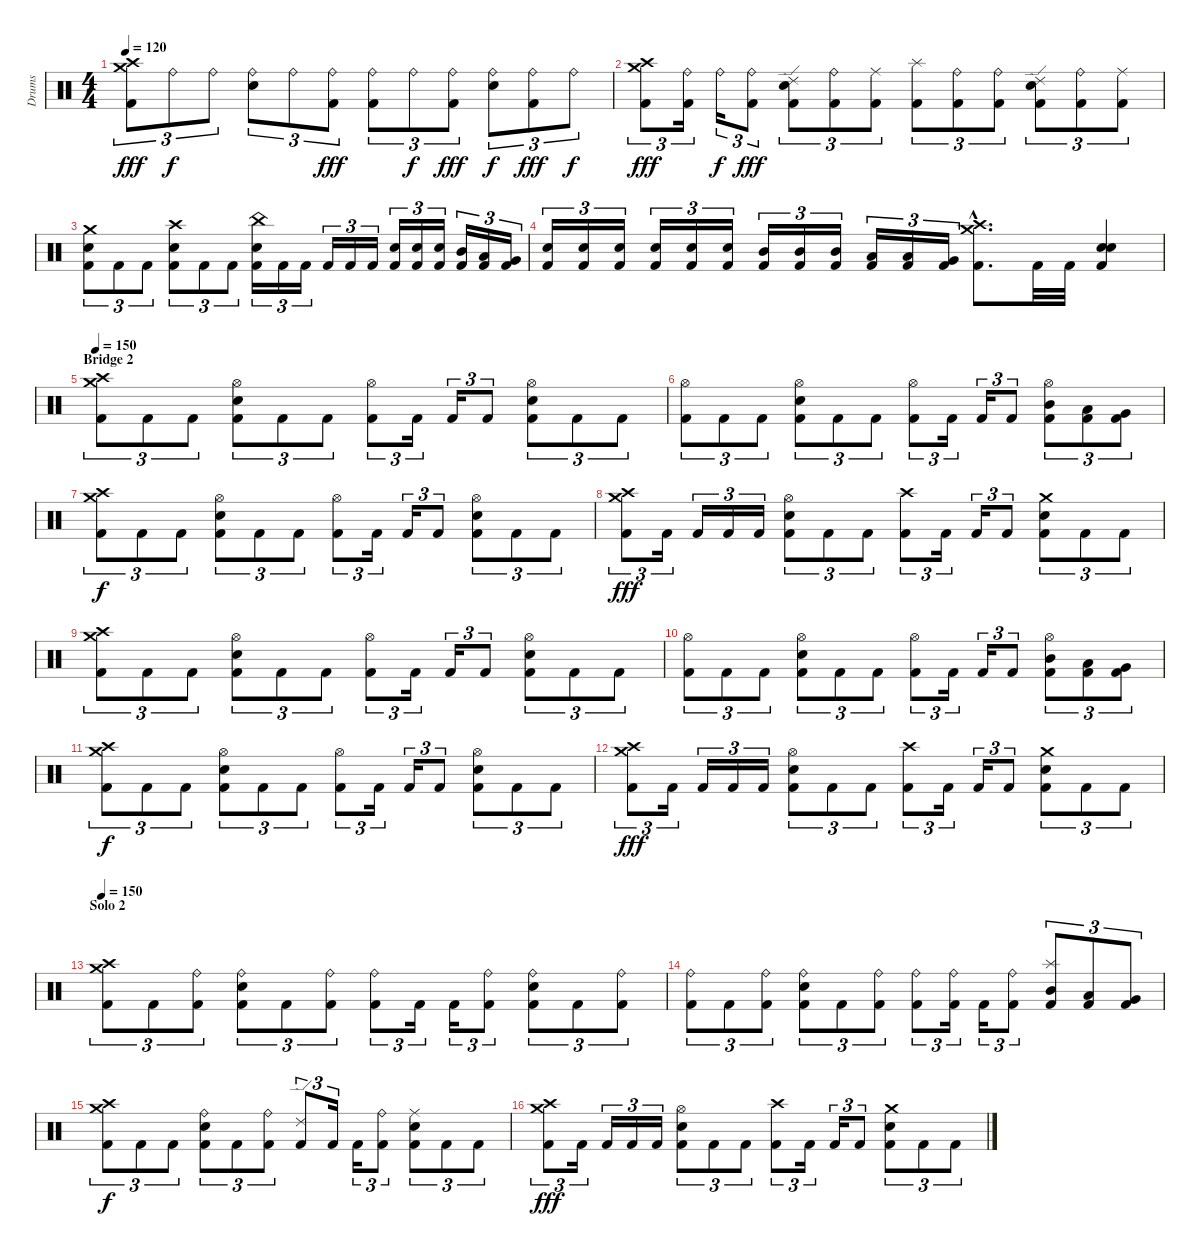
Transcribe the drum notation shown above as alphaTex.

\track ("Drums" "Drums") {instrument percussion}
\staff {score}
\articulation defaults
\ts (4 4)
\tempo 120
\clef neutral
\ks c
("Crash medium (hit)" "Crash high (hit)" "Kick (hit) 2").8{tu (3 2) dy fff} "Ride (bell)".8{tu (3 2) dy f} "Ride (bell)".8{tu (3 2)} ("Ride (bell)" "Snare (hit) 2").8{tu (3 2)} "Ride (bell)".8{tu (3 2)} ("Ride (bell)" "Kick (hit) 2").8{tu (3 2) dy fff} ("Ride (bell)" "Kick (hit) 2").8{tu (3 2)} "Ride (bell)".8{tu (3 2) dy f} ("Ride (bell)" "Kick (hit) 2").8{tu (3 2) dy fff} ("Ride (bell)" "Snare (hit) 2").8{tu (3 2) dy f} ("Ride (bell)" "Kick (hit) 2").8{tu (3 2) dy fff} "Ride (bell)".8{tu (3 2) dy f} |
("Crash medium (hit)" "Crash high (hit)" "Kick (hit) 2").8{tu (3 2) dy fff} ("Ride (bell)" "Kick (hit) 2").16{tu (3 2)} "Ride (bell)".16{tu (3 2) dy f} ("Ride (bell)" "Kick (hit) 2").8{tu (3 2) dy fff} ("Ride (edge) 2" "Snare (hit) 2" "Kick (hit) 2").8{tu (3 2)} ("Ride (bell)" "Kick (hit) 2").8{tu (3 2)} ("Ride (middle)" "Kick (hit) 2").8{tu (3 2)} ("Splash (hit)" "Kick (hit) 2").8{tu (3 2)} ("Ride (bell)" "Kick (hit) 2").8{tu (3 2)} ("Ride (bell)" "Kick (hit) 2").8{tu (3 2)} ("Ride (edge) 2" "Snare (hit) 2" "Kick (hit) 2").8{tu (3 2)} ("Ride (bell)" "Kick (hit) 2").8{tu (3 2)} ("Ride (middle)" "Kick (hit) 2").8{tu (3 2)} |
("Crash medium (hit)" "Snare (hit) 2" "Kick (hit) 2").8{tu (3 2)} "Kick (hit) 2".8{tu (3 2)} "Kick (hit) 2".8{tu (3 2)} ("Crash high (hit)" "Snare (hit) 2" "Kick (hit) 2").8{tu (3 2)} "Kick (hit) 2".8{tu (3 2)} "Kick (hit) 2".8{tu (3 2)} ("China (hit)" "Snare (hit) 2" "Kick (hit) 2").16{tu (3 2)} "Kick (hit) 2".16{tu (3 2)} "Kick (hit) 2".16{tu (3 2)} "Kick (hit) 2".16{tu (3 2)} "Kick (hit) 2".16{tu (3 2)} "Kick (hit) 2".16{tu (3 2)} ("Snare (hit) 2" "Kick (hit) 2").16{tu (3 2)} ("Snare (hit) 2" "Kick (hit) 2").16{tu (3 2)} ("Snare (hit) 2" "Kick (hit) 2").16{tu (3 2)} ("Mid Tom (hit)" "Kick (hit) 2").16{tu (3 2)} ("Low Tom (hit)" "Kick (hit) 2").16{tu (3 2)} ("Very Low Tom (hit)" "Kick (hit) 2").16{tu (3 2)} |
("Snare (hit) 2" "Kick (hit) 2").16{tu (3 2)} ("Snare (hit) 2" "Kick (hit) 2").16{tu (3 2)} ("Snare (hit) 2" "Kick (hit) 2").16{tu (3 2)} ("Snare (hit) 2" "Kick (hit) 2").16{tu (3 2)} ("Snare (hit) 2" "Kick (hit) 2").16{tu (3 2)} ("Snare (hit) 2" "Kick (hit) 2").16{tu (3 2)} ("Mid Tom (hit)" "Kick (hit) 2").16{tu (3 2)} ("Mid Tom (hit)" "Kick (hit) 2").16{tu (3 2)} ("Mid Tom (hit)" "Kick (hit) 2").16{tu (3 2)} ("Low Tom (hit)" "Kick (hit) 2").16{tu (3 2)} ("Low Tom (hit)" "Kick (hit) 2").16{tu (3 2)} ("Very Low Tom (hit)" "Kick (hit) 2").16{tu (3 2)} ("Crash high (hit)"{hac} "Crash medium (hit)"{hac} "Kick (hit) 2"{hac}).8{d} "Kick (hit) 2".32 "Kick (hit) 2".32 ("Snare (hit) 2" "Snare (hit) 2" "Kick (hit) 2").4 |
\section ("" "Bridge 2")
\tempo 150
("Crash medium (hit)" "Crash high (hit)" "Kick (hit) 2").8{tu (3 2)} "Kick (hit) 2".8{tu (3 2)} "Kick (hit) 2".8{tu (3 2)} ("Hi-Hat (open)" "Snare (hit) 2" "Kick (hit) 2").8{tu (3 2)} "Kick (hit) 2".8{tu (3 2)} "Kick (hit) 2".8{tu (3 2)} ("Hi-Hat (open)" "Kick (hit) 2").8{tu (3 2)} "Kick (hit) 2".16{tu (3 2)} "Kick (hit) 2".16{tu (3 2)} "Kick (hit) 2".8{tu (3 2)} ("Hi-Hat (open)" "Snare (hit) 2" "Kick (hit) 2").8{tu (3 2)} "Kick (hit) 2".8{tu (3 2)} "Kick (hit) 2".8{tu (3 2)} |
("Hi-Hat (open)" "Kick (hit) 2").8{tu (3 2)} "Kick (hit) 2".8{tu (3 2)} "Kick (hit) 2".8{tu (3 2)} ("Hi-Hat (open)" "Snare (hit) 2" "Kick (hit) 2").8{tu (3 2)} "Kick (hit) 2".8{tu (3 2)} "Kick (hit) 2".8{tu (3 2)} ("Hi-Hat (open)" "Kick (hit) 2").8{tu (3 2)} "Kick (hit) 2".16{tu (3 2)} "Kick (hit) 2".16{tu (3 2)} "Kick (hit) 2".8{tu (3 2)} ("Hi-Hat (open)" "Mid Tom (hit)" "Kick (hit) 2").8{tu (3 2)} ("Low Tom (hit)" "Kick (hit) 2").8{tu (3 2)} ("Very Low Tom (hit)" "Kick (hit) 2").8{tu (3 2)} |
("Crash medium (hit)" "Crash high (hit)" "Kick (hit) 2").8{tu (3 2) dy f} "Kick (hit) 2".8{tu (3 2)} "Kick (hit) 2".8{tu (3 2)} ("Hi-Hat (open)" "Snare (hit) 2" "Kick (hit) 2").8{tu (3 2)} "Kick (hit) 2".8{tu (3 2)} "Kick (hit) 2".8{tu (3 2)} ("Hi-Hat (open)" "Kick (hit) 2").8{tu (3 2)} "Kick (hit) 2".16{tu (3 2)} "Kick (hit) 2".16{tu (3 2)} "Kick (hit) 2".8{tu (3 2)} ("Hi-Hat (open)" "Snare (hit) 2" "Kick (hit) 2").8{tu (3 2)} "Kick (hit) 2".8{tu (3 2)} "Kick (hit) 2".8{tu (3 2)} |
("Crash medium (hit)" "Crash high (hit)" "Kick (hit) 2").8{tu (3 2) dy fff} "Kick (hit) 2".16{tu (3 2)} "Kick (hit) 2".16{tu (3 2)} "Kick (hit) 2".16{tu (3 2)} "Kick (hit) 2".16{tu (3 2)} ("Hi-Hat (open)" "Snare (hit) 2" "Kick (hit) 2").8{tu (3 2)} "Kick (hit) 2".8{tu (3 2)} "Kick (hit) 2".8{tu (3 2)} ("Crash high (hit)" "Kick (hit) 2").8{tu (3 2)} "Kick (hit) 2".16{tu (3 2)} "Kick (hit) 2".16{tu (3 2)} "Kick (hit) 2".8{tu (3 2)} ("Crash medium (hit)" "Snare (hit) 2" "Kick (hit) 2").8{tu (3 2)} "Kick (hit) 2".8{tu (3 2)} "Kick (hit) 2".8{tu (3 2)} |
("Crash medium (hit)" "Crash high (hit)" "Kick (hit) 2").8{tu (3 2)} "Kick (hit) 2".8{tu (3 2)} "Kick (hit) 2".8{tu (3 2)} ("Hi-Hat (open)" "Snare (hit) 2" "Kick (hit) 2").8{tu (3 2)} "Kick (hit) 2".8{tu (3 2)} "Kick (hit) 2".8{tu (3 2)} ("Hi-Hat (open)" "Kick (hit) 2").8{tu (3 2)} "Kick (hit) 2".16{tu (3 2)} "Kick (hit) 2".16{tu (3 2)} "Kick (hit) 2".8{tu (3 2)} ("Hi-Hat (open)" "Snare (hit) 2" "Kick (hit) 2").8{tu (3 2)} "Kick (hit) 2".8{tu (3 2)} "Kick (hit) 2".8{tu (3 2)} |
("Hi-Hat (open)" "Kick (hit) 2").8{tu (3 2)} "Kick (hit) 2".8{tu (3 2)} "Kick (hit) 2".8{tu (3 2)} ("Hi-Hat (open)" "Snare (hit) 2" "Kick (hit) 2").8{tu (3 2)} "Kick (hit) 2".8{tu (3 2)} "Kick (hit) 2".8{tu (3 2)} ("Hi-Hat (open)" "Kick (hit) 2").8{tu (3 2)} "Kick (hit) 2".16{tu (3 2)} "Kick (hit) 2".16{tu (3 2)} "Kick (hit) 2".8{tu (3 2)} ("Hi-Hat (open)" "Mid Tom (hit)" "Kick (hit) 2").8{tu (3 2)} ("Low Tom (hit)" "Kick (hit) 2").8{tu (3 2)} ("Very Low Tom (hit)" "Kick (hit) 2").8{tu (3 2)} |
("Crash medium (hit)" "Crash high (hit)" "Kick (hit) 2").8{tu (3 2) dy f} "Kick (hit) 2".8{tu (3 2)} "Kick (hit) 2".8{tu (3 2)} ("Hi-Hat (open)" "Snare (hit) 2" "Kick (hit) 2").8{tu (3 2)} "Kick (hit) 2".8{tu (3 2)} "Kick (hit) 2".8{tu (3 2)} ("Hi-Hat (open)" "Kick (hit) 2").8{tu (3 2)} "Kick (hit) 2".16{tu (3 2)} "Kick (hit) 2".16{tu (3 2)} "Kick (hit) 2".8{tu (3 2)} ("Hi-Hat (open)" "Snare (hit) 2" "Kick (hit) 2").8{tu (3 2)} "Kick (hit) 2".8{tu (3 2)} "Kick (hit) 2".8{tu (3 2)} |
("Crash medium (hit)" "Crash high (hit)" "Kick (hit) 2").8{tu (3 2) dy fff} "Kick (hit) 2".16{tu (3 2)} "Kick (hit) 2".16{tu (3 2)} "Kick (hit) 2".16{tu (3 2)} "Kick (hit) 2".16{tu (3 2)} ("Hi-Hat (open)" "Snare (hit) 2" "Kick (hit) 2").8{tu (3 2)} "Kick (hit) 2".8{tu (3 2)} "Kick (hit) 2".8{tu (3 2)} ("Crash high (hit)" "Kick (hit) 2").8{tu (3 2)} "Kick (hit) 2".16{tu (3 2)} "Kick (hit) 2".16{tu (3 2)} "Kick (hit) 2".8{tu (3 2)} ("Crash medium (hit)" "Snare (hit) 2" "Kick (hit) 2").8{tu (3 2)} "Kick (hit) 2".8{tu (3 2)} "Kick (hit) 2".8{tu (3 2)} |
\section ("" "Solo 2")
\tempo 150
("Crash medium (hit)" "Crash high (hit)" "Kick (hit) 2").8{tu (3 2)} "Kick (hit) 2".8{tu (3 2)} ("Ride (bell)" "Kick (hit) 2").8{tu (3 2)} ("Ride (bell)" "Snare (hit) 2" "Kick (hit) 2").8{tu (3 2)} "Kick (hit) 2".8{tu (3 2)} ("Ride (bell)" "Kick (hit) 2").8{tu (3 2)} ("Ride (bell)" "Kick (hit) 2").8{tu (3 2)} "Kick (hit) 2".16{tu (3 2)} "Kick (hit) 2".16{tu (3 2)} ("Ride (bell)" "Kick (hit) 2").8{tu (3 2)} ("Ride (bell)" "Snare (hit) 2" "Kick (hit) 2").8{tu (3 2)} "Kick (hit) 2".8{tu (3 2)} ("Ride (bell)" "Kick (hit) 2").8{tu (3 2)} |
("Ride (bell)" "Kick (hit) 2").8{tu (3 2)} "Kick (hit) 2".8{tu (3 2)} ("Ride (bell)" "Kick (hit) 2").8{tu (3 2)} ("Ride (bell)" "Snare (hit) 2" "Kick (hit) 2").8{tu (3 2)} "Kick (hit) 2".8{tu (3 2)} ("Ride (bell)" "Kick (hit) 2").8{tu (3 2)} ("Ride (bell)" "Kick (hit) 2").8{tu (3 2)} ("Ride (bell)" "Kick (hit) 2").16{tu (3 2)} "Kick (hit) 2".16{tu (3 2)} ("Ride (bell)" "Kick (hit) 2").8{tu (3 2)} ("Splash (hit)" "Mid Tom (hit)" "Kick (hit) 2").8{tu (3 2)} ("Low Tom (hit)" "Kick (hit) 2").8{tu (3 2)} ("Very Low Tom (hit)" "Kick (hit) 2").8{tu (3 2)} |
("Crash medium (hit)" "Crash high (hit)" "Kick (hit) 2").8{tu (3 2) dy f} "Kick (hit) 2".8{tu (3 2)} "Kick (hit) 2".8{tu (3 2)} ("Ride (bell)" "Snare (hit) 2" "Kick (hit) 2").8{tu (3 2)} "Kick (hit) 2".8{tu (3 2)} ("Ride (bell)" "Kick (hit) 2").8{tu (3 2)} ("Ride (edge) 2" "Kick (hit) 2").8{tu (3 2)} "Kick (hit) 2".16{tu (3 2)} "Kick (hit) 2".16{tu (3 2)} ("Ride (bell)" "Kick (hit) 2").8{tu (3 2)} ("Ride (middle)" "Snare (hit) 2" "Kick (hit) 2").8{tu (3 2)} "Kick (hit) 2".8{tu (3 2)} "Kick (hit) 2".8{tu (3 2)} |
("Crash medium (hit)" "Crash high (hit)" "Kick (hit) 2").8{tu (3 2) dy fff} "Kick (hit) 2".16{tu (3 2)} "Kick (hit) 2".16{tu (3 2)} "Kick (hit) 2".16{tu (3 2)} "Kick (hit) 2".16{tu (3 2)} ("Hi-Hat (open)" "Snare (hit) 2" "Kick (hit) 2").8{tu (3 2)} "Kick (hit) 2".8{tu (3 2)} "Kick (hit) 2".8{tu (3 2)} ("Crash high (hit)" "Kick (hit) 2").8{tu (3 2)} "Kick (hit) 2".16{tu (3 2)} "Kick (hit) 2".16{tu (3 2)} "Kick (hit) 2".8{tu (3 2)} ("Crash medium (hit)" "Snare (hit) 2" "Kick (hit) 2").8{tu (3 2)} "Kick (hit) 2".8{tu (3 2)} "Kick (hit) 2".8{tu (3 2)}
